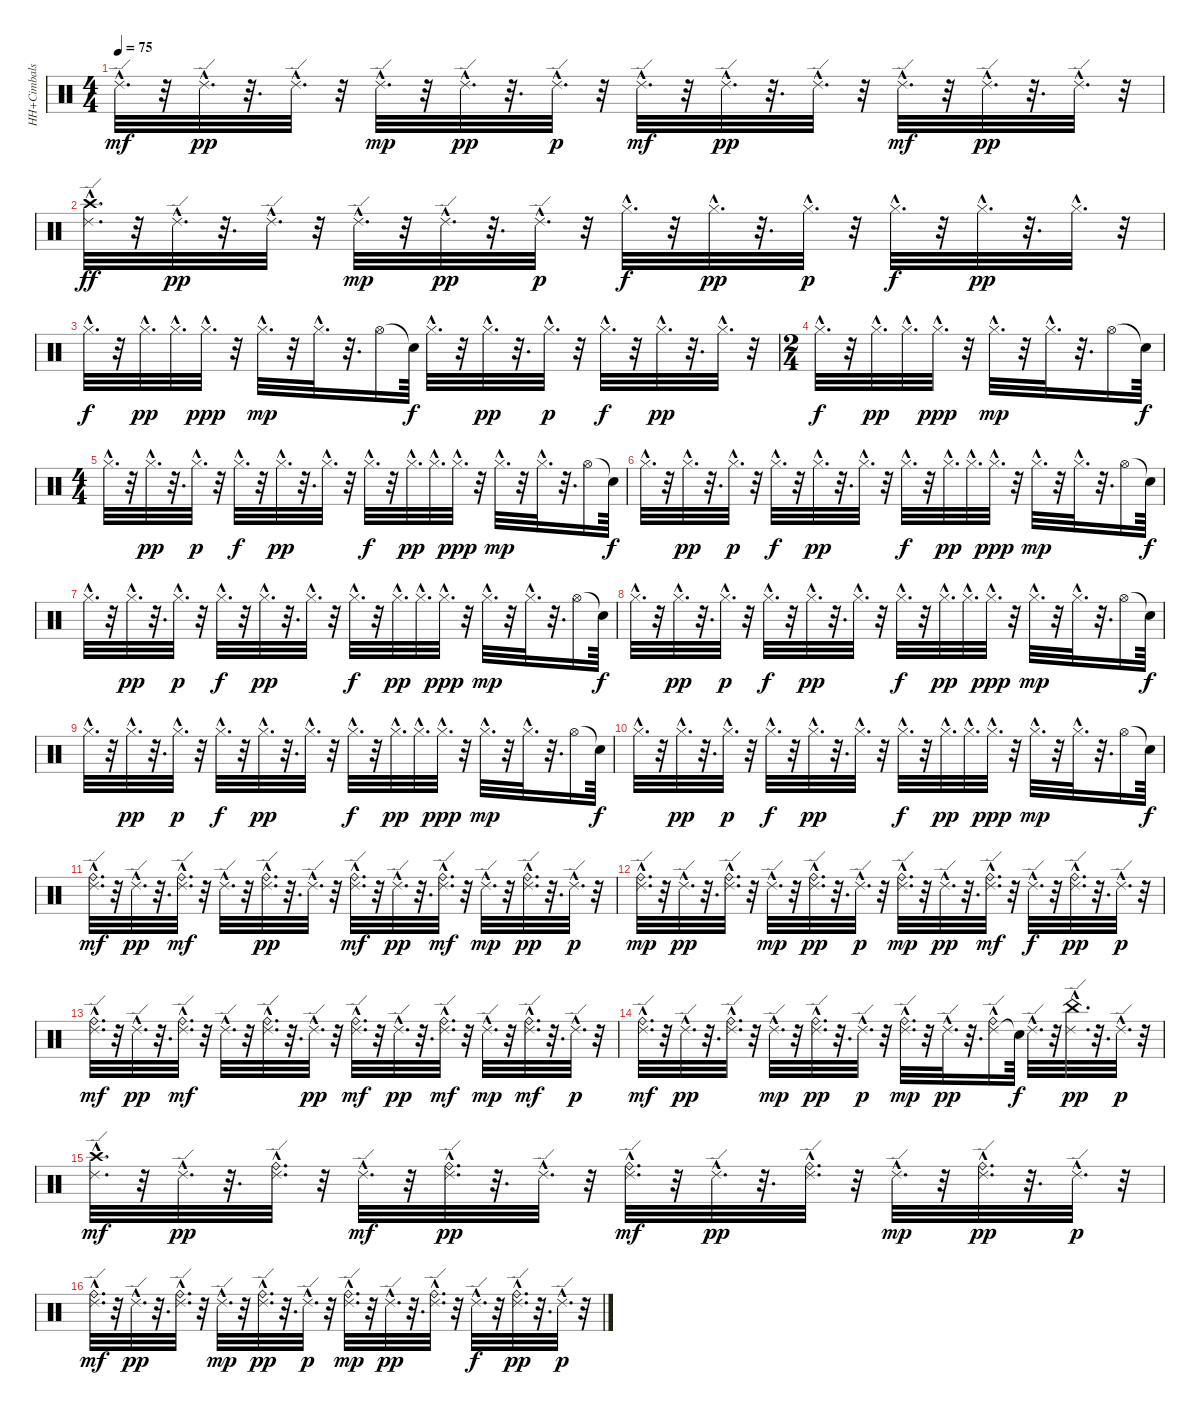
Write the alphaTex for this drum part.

\track ("HH+Cimbals" "HH+Cimbals") {instrument percussion}
\staff {score}
\articulation defaults
\ts (4 4)
\tempo 75
\clef neutral
\ks c "Ride (edge) 2"{hac}.32{d dy mf}
r.32 "Ride (edge) 2"{hac}.32{d dy pp} r.32{d} "Ride (edge) 2"{hac}.32{d} r.32 "Ride (edge) 2"{hac}.32{d dy mp} r.32 "Ride (edge) 2"{hac}.32{d dy pp} r.32{d} "Ride (edge) 2"{hac}.32{d dy p} r.32 "Ride (edge) 2"{hac}.32{d dy mf} r.32 "Ride (edge) 2"{hac}.32{d dy pp} r.32{d} "Ride (edge) 2"{hac}.32{d} r.32 "Ride (edge) 2"{hac}.32{d dy mf} r.32 "Ride (edge) 2"{hac}.32{d dy pp} r.32{d} "Ride (edge) 2"{hac}.32{d} r.32 |
("Ride (edge) 2"{hac} "Crash high (hit)"{hac}).32{d dy ff} r.32 "Ride (edge) 2"{hac}.32{d dy pp} r.32{d} "Ride (edge) 2"{hac}.32{d} r.32 "Ride (edge) 2"{hac}.32{d dy mp} r.32 "Ride (edge) 2"{hac}.32{d dy pp} r.32{d} "Ride (edge) 2"{hac}.32{d dy p} r.32 "Hi-Hat (closed)"{hac}.32{d dy f} r.32 "Hi-Hat (closed)"{hac}.32{d dy pp} r.32{d} "Hi-Hat (closed)"{hac}.32{d dy p} r.32 "Hi-Hat (closed)"{hac}.32{d dy f} r.32 "Hi-Hat (closed)"{hac}.32{d dy pp} r.32{d} "Hi-Hat (closed)"{hac}.32{d} r.32 |
"Hi-Hat (closed)"{hac}.32{d dy f} r.32 "Hi-Hat (closed)"{hac}.32{d dy pp} "Hi-Hat (closed)"{hac}.32{d} "Hi-Hat (closed)"{hac}.32{d dy ppp} r.32 "Hi-Hat (closed)"{hac}.32{d dy mp} r.32 "Hi-Hat (closed)"{hac}.32{d} r.32{d} "Hi-Hat (open)".16 "Snare (hit)"{t}.64{dy f} "Hi-Hat (closed)"{hac}.32{d} r.32 "Hi-Hat (closed)"{hac}.32{d dy pp} r.32{d} "Hi-Hat (closed)"{hac}.32{d dy p} r.32 "Hi-Hat (closed)"{hac}.32{d dy f} r.32 "Hi-Hat (closed)"{hac}.32{d dy pp} r.32{d} "Hi-Hat (closed)"{hac}.32{d} r.32 |
\ts (2 4)
"Hi-Hat (closed)"{hac}.32{d dy f} r.32 "Hi-Hat (closed)"{hac}.32{d dy pp} "Hi-Hat (closed)"{hac}.32{d} "Hi-Hat (closed)"{hac}.32{d dy ppp} r.32 "Hi-Hat (closed)"{hac}.32{d dy mp} r.32 "Hi-Hat (closed)"{hac}.32{d} r.32{d} "Hi-Hat (open)".16 "Snare (hit)"{t}.64{dy f} |
\ts (4 4)
"Hi-Hat (closed)"{hac}.32{d} r.32 "Hi-Hat (closed)"{hac}.32{d dy pp} r.32{d} "Hi-Hat (closed)"{hac}.32{d dy p} r.32 "Hi-Hat (closed)"{hac}.32{d dy f} r.32 "Hi-Hat (closed)"{hac}.32{d dy pp} r.32{d} "Hi-Hat (closed)"{hac}.32{d} r.32 "Hi-Hat (closed)"{hac}.32{d dy f} r.32 "Hi-Hat (closed)"{hac}.32{d dy pp} "Hi-Hat (closed)"{hac}.32{d} "Hi-Hat (closed)"{hac}.32{d dy ppp} r.32 "Hi-Hat (closed)"{hac}.32{d dy mp} r.32 "Hi-Hat (closed)"{hac}.32{d} r.32{d} "Hi-Hat (open)".16 "Snare (hit)"{t}.64{dy f} |
"Hi-Hat (closed)"{hac}.32{d} r.32 "Hi-Hat (closed)"{hac}.32{d dy pp} r.32{d} "Hi-Hat (closed)"{hac}.32{d dy p} r.32 "Hi-Hat (closed)"{hac}.32{d dy f} r.32 "Hi-Hat (closed)"{hac}.32{d dy pp} r.32{d} "Hi-Hat (closed)"{hac}.32{d} r.32 "Hi-Hat (closed)"{hac}.32{d dy f} r.32 "Hi-Hat (closed)"{hac}.32{d dy pp} "Hi-Hat (closed)"{hac}.32{d} "Hi-Hat (closed)"{hac}.32{d dy ppp} r.32 "Hi-Hat (closed)"{hac}.32{d dy mp} r.32 "Hi-Hat (closed)"{hac}.32{d} r.32{d} "Hi-Hat (open)".16 "Snare (hit)"{t}.64{dy f} |
"Hi-Hat (closed)"{hac}.32{d} r.32 "Hi-Hat (closed)"{hac}.32{d dy pp} r.32{d} "Hi-Hat (closed)"{hac}.32{d dy p} r.32 "Hi-Hat (closed)"{hac}.32{d dy f} r.32 "Hi-Hat (closed)"{hac}.32{d dy pp} r.32{d} "Hi-Hat (closed)"{hac}.32{d} r.32 "Hi-Hat (closed)"{hac}.32{d dy f} r.32 "Hi-Hat (closed)"{hac}.32{d dy pp} "Hi-Hat (closed)"{hac}.32{d} "Hi-Hat (closed)"{hac}.32{d dy ppp} r.32 "Hi-Hat (closed)"{hac}.32{d dy mp} r.32 "Hi-Hat (closed)"{hac}.32{d} r.32{d} "Hi-Hat (open)".16 "Snare (hit)"{t}.64{dy f} |
"Hi-Hat (closed)"{hac}.32{d} r.32 "Hi-Hat (closed)"{hac}.32{d dy pp} r.32{d} "Hi-Hat (closed)"{hac}.32{d dy p} r.32 "Hi-Hat (closed)"{hac}.32{d dy f} r.32 "Hi-Hat (closed)"{hac}.32{d dy pp} r.32{d} "Hi-Hat (closed)"{hac}.32{d} r.32 "Hi-Hat (closed)"{hac}.32{d dy f} r.32 "Hi-Hat (closed)"{hac}.32{d dy pp} "Hi-Hat (closed)"{hac}.32{d} "Hi-Hat (closed)"{hac}.32{d dy ppp} r.32 "Hi-Hat (closed)"{hac}.32{d dy mp} r.32 "Hi-Hat (closed)"{hac}.32{d} r.32{d} "Hi-Hat (open)".16 "Snare (hit)"{t}.64{dy f} |
"Hi-Hat (closed)"{hac}.32{d} r.32 "Hi-Hat (closed)"{hac}.32{d dy pp} r.32{d} "Hi-Hat (closed)"{hac}.32{d dy p} r.32 "Hi-Hat (closed)"{hac}.32{d dy f} r.32 "Hi-Hat (closed)"{hac}.32{d dy pp} r.32{d} "Hi-Hat (closed)"{hac}.32{d} r.32 "Hi-Hat (closed)"{hac}.32{d dy f} r.32 "Hi-Hat (closed)"{hac}.32{d dy pp} "Hi-Hat (closed)"{hac}.32{d} "Hi-Hat (closed)"{hac}.32{d dy ppp} r.32 "Hi-Hat (closed)"{hac}.32{d dy mp} r.32 "Hi-Hat (closed)"{hac}.32{d} r.32{d} "Hi-Hat (open)".16 "Snare (hit)"{t}.64{dy f} |
"Hi-Hat (closed)"{hac}.32{d} r.32 "Hi-Hat (closed)"{hac}.32{d dy pp} r.32{d} "Hi-Hat (closed)"{hac}.32{d dy p} r.32 "Hi-Hat (closed)"{hac}.32{d dy f} r.32 "Hi-Hat (closed)"{hac}.32{d dy pp} r.32{d} "Hi-Hat (closed)"{hac}.32{d} r.32 "Hi-Hat (closed)"{hac}.32{d dy f} r.32 "Hi-Hat (closed)"{hac}.32{d dy pp} "Hi-Hat (closed)"{hac}.32{d} "Hi-Hat (closed)"{hac}.32{d dy ppp} r.32 "Hi-Hat (closed)"{hac}.32{d dy mp} r.32 "Hi-Hat (closed)"{hac}.32{d} r.32{d} "Hi-Hat (open)".16 "Snare (hit)"{t}.64{dy f} |
("Ride (bell)"{hac} "Ride (edge) 2"{hac}).32{d dy mf} r.32 "Ride (edge) 2"{hac}.32{d dy pp} r.32{d} ("Ride (edge) 2"{hac} "Ride (bell)"{hac}).32{d dy mf} r.32 "Ride (edge) 2"{hac}.32{d} r.32 ("Ride (bell)"{hac} "Ride (edge) 2"{hac}).32{d dy pp} r.32{d} "Ride (edge) 2"{hac}.32{d} r.32 ("Ride (edge) 2"{hac} "Ride (bell)"{hac}).32{d dy mf} r.32 "Ride (edge) 2"{hac}.32{d dy pp} r.32{d} ("Ride (edge) 2"{hac} "Ride (bell)"{hac}).32{d dy mf} r.32 "Ride (edge) 2"{hac}.32{d dy mp} r.32 ("Ride (edge) 2"{hac} "Ride (bell)"{hac}).32{d dy pp} r.32{d} "Ride (edge) 2"{hac}.32{d dy p} r.32 |
("Ride (edge) 2"{hac} "Ride (bell)"{hac}).32{d dy mp} r.32 "Ride (edge) 2"{hac}.32{d dy pp} r.32{d} ("Ride (edge) 2"{hac} "Ride (bell)"{hac}).32{d} r.32 "Ride (edge) 2"{hac}.32{d dy mp} r.32 ("Ride (bell)"{hac} "Ride (edge) 2"{hac}).32{d dy pp} r.32{d} "Ride (edge) 2"{hac}.32{d dy p} r.32 ("Ride (edge) 2"{hac} "Ride (bell)"{hac}).32{d dy mp} r.32 "Ride (edge) 2"{hac}.32{d dy pp} r.32{d} ("Ride (edge) 2"{hac} "Ride (bell)"{hac}).32{d dy mf} r.32 "Ride (edge) 2"{hac}.32{d dy f} r.32 ("Ride (edge) 2"{hac} "Ride (bell)"{hac}).32{d dy pp} r.32{d} "Ride (edge) 2"{hac}.32{d dy p} r.32 |
("Ride (bell)"{hac} "Ride (edge) 2"{hac}).32{d dy mf} r.32 "Ride (edge) 2"{hac}.32{d dy pp} r.32{d} ("Ride (edge) 2"{hac} "Ride (bell)"{hac}).32{d dy mf} r.32 "Ride (edge) 2"{hac}.32{d} r.32 ("Ride (edge) 2"{hac} "Ride (bell)"{hac}).32{d} r.32{d} "Ride (edge) 2"{hac}.32{d dy pp} r.32 ("Ride (edge) 2"{hac} "Ride (bell)"{hac}).32{d dy mf} r.32 "Ride (edge) 2"{hac}.32{d dy pp} r.32{d} ("Ride (edge) 2"{hac} "Ride (bell)"{hac}).32{d dy mf} r.32 "Ride (edge) 2"{hac}.32{d dy mp} r.32 ("Ride (edge) 2"{hac} "Ride (bell)"{hac}).32{d dy mf} r.32{d} "Ride (edge) 2"{hac}.32{d dy p} r.32 |
("Ride (bell)"{hac} "Ride (edge) 2"{hac}).32{d dy mf} r.32 "Ride (edge) 2"{hac}.32{d dy pp} r.32{d} ("Ride (edge) 2"{hac} "Ride (bell)"{hac}).32{d} r.32 "Ride (edge) 2"{hac}.32{d dy mp} r.32 ("Ride (edge) 2"{hac} "Ride (bell)"{hac}).32{d dy pp} r.32{d} "Ride (edge) 2"{hac}.32{d dy p} r.32 ("Ride (bell)"{hac} "Ride (edge) 2"{hac}).32{d dy mp} r.32 "Ride (edge) 2"{hac}.32{d dy pp} r.32{d} ("Ride (edge) 2"{hac} "Ride (bell)").16 "Snare (hit)"{t}.64{dy f} "Ride (edge) 2"{hac}.32{d} r.32 ("China (hit)"{hac} "Ride (edge) 2"{hac}).32{d dy pp} r.32{d} "Ride (edge) 2"{hac}.32{d dy p} r.32 |
("Crash high (hit)"{hac} "Ride (edge) 2"{hac}).32{d dy mf} r.32 "Ride (edge) 2"{hac}.32{d dy pp} r.32{d} ("Ride (edge) 2"{hac} "Ride (bell)"{hac}).32{d} r.32 "Ride (edge) 2"{hac}.32{d dy mf} r.32 ("Ride (edge) 2"{hac} "Ride (bell)"{hac}).32{d dy pp} r.32{d} "Ride (edge) 2"{hac}.32{d} r.32 ("Ride (edge) 2"{hac} "Ride (bell)"{hac}).32{d dy mf} r.32 "Ride (edge) 2"{hac}.32{d dy pp} r.32{d} ("Ride (edge) 2"{hac} "Ride (bell)"{hac}).32{d} r.32 "Ride (edge) 2"{hac}.32{d dy mp} r.32 ("Ride (bell)"{hac} "Ride (edge) 2"{hac}).32{d dy pp} r.32{d} "Ride (edge) 2"{hac}.32{d dy p} r.32 |
("Ride (bell)"{hac} "Ride (edge) 2"{hac}).32{d dy mf} r.32 "Ride (edge) 2"{hac}.32{d dy pp} r.32{d} ("Ride (bell)"{hac} "Ride (edge) 2"{hac}).32{d} r.32 "Ride (edge) 2"{hac}.32{d dy mp} r.32 ("Ride (bell)"{hac} "Ride (edge) 2"{hac}).32{d dy pp} r.32{d} "Ride (edge) 2"{hac}.32{d dy p} r.32 ("Ride (edge) 2"{hac} "Ride (bell)"{hac}).32{d dy mp} r.32 "Ride (edge) 2"{hac}.32{d dy pp} r.32{d} ("Ride (edge) 2"{hac} "Ride (bell)"{hac}).32{d} r.32 "Ride (edge) 2"{hac}.32{d dy f} r.32 ("Ride (edge) 2"{hac} "Ride (bell)"{hac}).32{d dy pp} r.32{d} "Ride (edge) 2"{hac}.32{d dy p} r.32
